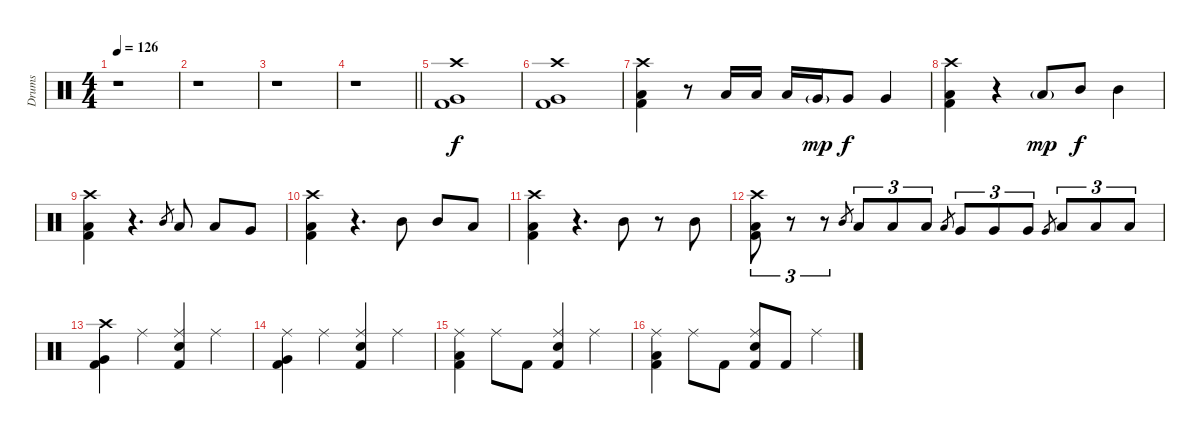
\track ("Drums" "Drums") {instrument percussion bank 127}
\staff {score}
\articulation defaults
\ts (4 4)
\tempo 126
\clef neutral
\ks c
r.1{dy f} |
r.1 |
r.1 |
\barLineRight lightlight
r.1 |
("Crash high (hit)" "Kick (hit) 2" "Very Low Tom (hit)").1 |
("Crash high (hit)" "Kick (hit) 2" "Very Low Tom (hit)").1 |
("Crash high (hit)" "Kick (hit) 2" "Low Floor Tom (hit)").4 r.8 "Low Tom (hit)".16 "Low Tom (hit)".16 "Low Tom (hit)".16 "Very Low Tom (hit)"{g}.16{dy mp} "Very Low Tom (hit)".8{dy f} "Very Low Tom (hit)".4 |
("Crash high (hit)" "Kick (hit) 2" "Low Floor Tom (hit)").4 r.4 "Low Tom (hit)"{g}.8{dy mp} "Mid Tom (hit)".8{dy f} "Mid Tom (hit)".4 |
("Crash high (hit)" "Kick (hit) 2" "Low Tom (hit)").4 r.4{d} "Mid Tom (hit)".8{gr} "Low Tom (hit)".8 "Low Tom (hit)".8 "Very Low Tom (hit)".8 |
("Crash high (hit)" "Kick (hit) 2" "Low Floor Tom (hit)").4 r.4{d} "Mid Tom (hit)".8 "Mid Tom (hit)".8 "Low Tom (hit)".8 |
("Crash high (hit)" "Kick (hit) 2" "Low Floor Tom (hit)").4 r.4{d} "Mid Tom (hit)".8 r.8 "Mid Tom (hit)".8 |
("Crash high (hit)" "Kick (hit) 2" "Low Floor Tom (hit)").8{tu (3 2)} r.8{tu (3 2)} r.8{tu (3 2)} "Mid Tom (hit)".8{gr} "Low Tom (hit)".8{tu (3 2)} "Low Tom (hit)".8{tu (3 2)} "Low Tom (hit)".8{tu (3 2)} "Low Tom (hit)".8{gr} "Very Low Tom (hit)".8{tu (3 2)} "Very Low Tom (hit)".8{tu (3 2)} "Very Low Tom (hit)".8{tu (3 2)} "Very Low Tom (hit)".8{gr} "Low Floor Tom (hit)".8{tu (3 2)} "Low Floor Tom (hit)".8{tu (3 2)} "Low Floor Tom (hit)".8{tu (3 2)} |
("Crash high (hit)" "Kick (hit) 2" "Very Low Tom (hit)").4 "Ride (middle)".4 ("Ride (middle)" "Kick (hit) 2" "Electric Snare (hit)").4 "Ride (middle)".4 |
("Ride (middle)" "Kick (hit) 2" "Very Low Tom (hit)").4 "Ride (middle)".4 ("Ride (middle)" "Kick (hit) 2" "Electric Snare (hit)").4 "Ride (middle)".4 |
("Ride (middle)" "Kick (hit) 2" "Low Floor Tom (hit)").4 "Ride (middle)".8 "Kick (hit) 2".8 ("Ride (middle)" "Kick (hit) 2" "Electric Snare (hit)").4 "Ride (middle)".4 |
("Ride (middle)" "Kick (hit) 2" "Low Floor Tom (hit)").4 "Ride (middle)".8 "Kick (hit) 2".8 ("Ride (middle)" "Kick (hit) 2" "Electric Snare (hit)").8 "Kick (hit) 2".8 "Ride (middle)".4
